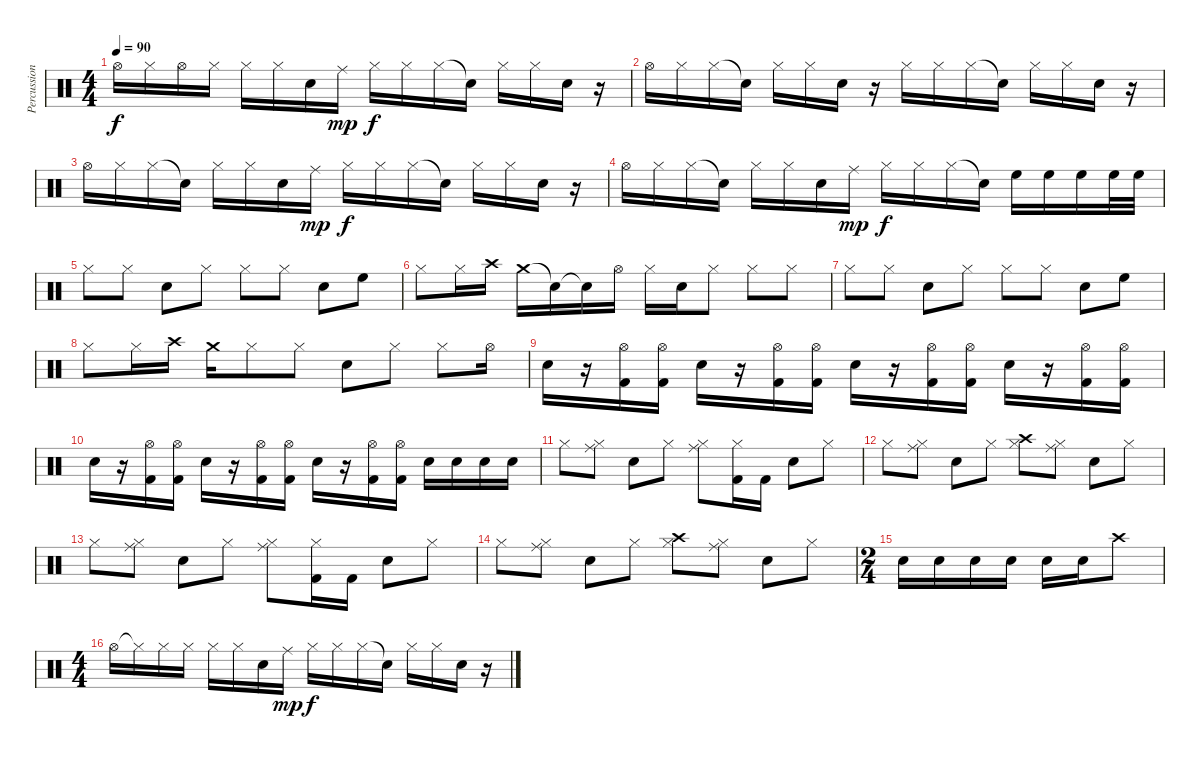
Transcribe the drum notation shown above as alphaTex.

\track ("Percussioni" "Percussion") {instrument percussion}
\staff {score}
\articulation defaults
\ts (4 4)
\tempo 90
\clef neutral
\ks c "Hi-Hat (open)".16{dy f} "Hi-Hat (closed)".16 "Hi-Hat (open)".16 "Hi-Hat (closed)".16 "Hi-Hat (closed)".16 "Hi-Hat (closed)".16 "Snare (hit) 2".16 "Ride (middle)".16{dy mp} "Hi-Hat (closed)".16{dy f} "Hi-Hat (closed)".16 "Hi-Hat (closed)".16 "Snare (hit)"{t}.16 "Hi-Hat (closed)".16 "Hi-Hat (closed)".16 "Snare (hit) 2".16
r.16 |
"Hi-Hat (open)".16 "Hi-Hat (closed)".16 "Hi-Hat (closed)".16 "Snare (hit)"{t}.16 "Hi-Hat (closed)".16 "Hi-Hat (closed)".16 "Snare (hit) 2".16 r.16 "Hi-Hat (closed)".16 "Hi-Hat (closed)".16 "Hi-Hat (closed)".16 "Snare (hit)"{t}.16 "Hi-Hat (closed)".16 "Hi-Hat (closed)".16 "Snare (hit) 2".16 r.16 |
"Hi-Hat (open)".16 "Hi-Hat (closed)".16 "Hi-Hat (closed)".16 "Snare (hit)"{t}.16 "Hi-Hat (closed)".16 "Hi-Hat (closed)".16 "Snare (hit) 2".16 "Ride (middle)".16{dy mp} "Hi-Hat (closed)".16{dy f} "Hi-Hat (closed)".16 "Hi-Hat (closed)".16 "Snare (hit)"{t}.16 "Hi-Hat (closed)".16 "Hi-Hat (closed)".16 "Snare (hit) 2".16 r.16 |
"Hi-Hat (open)".16 "Hi-Hat (closed)".16 "Hi-Hat (closed)".16 "Snare (hit)"{t}.16 "Hi-Hat (closed)".16 "Hi-Hat (closed)".16 "Snare (hit) 2".16 "Ride (middle)".16{dy mp} "Hi-Hat (closed)".16{dy f} "Hi-Hat (closed)".16 "Hi-Hat (closed)".16 "Snare (hit)"{t}.16 "High Floor Tom (hit)".16 "High Floor Tom (hit)".16 "High Floor Tom (hit)".16 "High Floor Tom (hit)".32 "High Floor Tom (hit)".32 |
"Hi-Hat (closed)".8 "Hi-Hat (closed)".8 "Snare (hit) 2".8 "Hi-Hat (closed)".8 "Hi-Hat (closed)".8 "Hi-Hat (closed)".8 "Snare (hit) 2".8 "High Floor Tom (hit)".8 |
"Hi-Hat (closed)".8 "Hi-Hat (closed)".16 "Crash high (hit)".16 "Crash medium (hit)".16 "Snare (hit)"{t}.16 "Snare (hit)"{t}.16 "Hi-Hat (open)".16 "Hi-Hat (closed)".16 "Snare (hit) 2".16 "Hi-Hat (closed)".8 "Hi-Hat (closed)".8 "Hi-Hat (closed)".8 |
"Hi-Hat (closed)".8 "Hi-Hat (closed)".8 "Snare (hit) 2".8 "Hi-Hat (closed)".8 "Hi-Hat (closed)".8 "Hi-Hat (closed)".8 "Snare (hit) 2".8 "High Floor Tom (hit)".8 |
"Hi-Hat (closed)".8 "Hi-Hat (closed)".16 "Crash high (hit)".16 "Crash medium (hit)".16 "Hi-Hat (closed)".8 "Hi-Hat (closed)".8 "Snare (hit) 2".8 "Hi-Hat (closed)".8 "Hi-Hat (closed)".8 "Hi-Hat (open)".16 |
"Snare (hit) 2".16 r.16 ("Hi-Hat (open)" "Kick (hit) 2").16 ("Hi-Hat (open)" "Kick (hit) 2").16 "Snare (hit) 2".16 r.16 ("Hi-Hat (open)" "Kick (hit) 2").16 ("Hi-Hat (open)" "Kick (hit) 2").16 "Snare (hit) 2".16 r.16 ("Hi-Hat (open)" "Kick (hit) 2").16 ("Hi-Hat (open)" "Kick (hit) 2").16 "Snare (hit) 2".16 r.16 ("Hi-Hat (open)" "Kick (hit) 2").16 ("Hi-Hat (open)" "Kick (hit) 2").16 |
"Snare (hit) 2".16 r.16 ("Hi-Hat (open)" "Kick (hit) 2").16 ("Hi-Hat (open)" "Kick (hit) 2").16 "Snare (hit) 2".16 r.16 ("Hi-Hat (open)" "Kick (hit) 2").16 ("Hi-Hat (open)" "Kick (hit) 2").16 "Snare (hit) 2".16 r.16 ("Hi-Hat (open)" "Kick (hit) 2").16 ("Hi-Hat (open)" "Kick (hit) 2").16 "Snare (hit) 2".16 "Snare (hit) 2".16 "Snare (hit) 2".16 "Snare (hit) 2".16 |
"Hi-Hat (closed)".8 ("Ride (middle)" "Hi-Hat (closed)").8 "Snare (hit) 2".8 "Hi-Hat (closed)".8 ("Ride (middle)" "Hi-Hat (closed)").8 ("Hi-Hat (closed)" "Kick (hit) 2").16 "Kick (hit) 2".16 "Snare (hit) 2".8 "Hi-Hat (closed)".8 |
"Hi-Hat (closed)".8 ("Ride (middle)" "Hi-Hat (closed)").8 "Snare (hit) 2".8 "Hi-Hat (closed)".8 ("Crash high (hit)" "Hi-Hat (closed)").8 ("Ride (middle)" "Hi-Hat (closed)").8 "Snare (hit) 2".8 "Hi-Hat (closed)".8 |
"Hi-Hat (closed)".8 ("Ride (middle)" "Hi-Hat (closed)").8 "Snare (hit) 2".8 "Hi-Hat (closed)".8 ("Ride (middle)" "Hi-Hat (closed)").8 ("Hi-Hat (closed)" "Kick (hit) 2").16 "Kick (hit) 2".16 "Snare (hit) 2".8 "Hi-Hat (closed)".8 |
"Hi-Hat (closed)".8 ("Ride (middle)" "Hi-Hat (closed)").8 "Snare (hit) 2".8 "Hi-Hat (closed)".8 ("Crash high (hit)" "Hi-Hat (closed)").8 ("Ride (middle)" "Hi-Hat (closed)").8 "Snare (hit) 2".8 "Hi-Hat (closed)".8 |
\ts (2 4)
"Snare (hit) 2".16 "Snare (hit) 2".16 "Snare (hit) 2".16 "Snare (hit) 2".16 "Snare (hit) 2".16 "Snare (hit) 2".16 "Crash high (hit)".8 |
\ts (4 4)
"Hi-Hat (open)".16 "Hi-Hat (closed)"{t}.16 "Hi-Hat (closed)".16 "Hi-Hat (closed)".16 "Hi-Hat (closed)".16 "Hi-Hat (closed)".16 "Snare (hit) 2".16 "Ride (middle)".16{dy mp} "Hi-Hat (closed)".16{dy f} "Hi-Hat (closed)".16 "Hi-Hat (closed)".16 "Snare (hit)"{t}.16 "Hi-Hat (closed)".16 "Hi-Hat (closed)".16 "Snare (hit) 2".16 r.16
